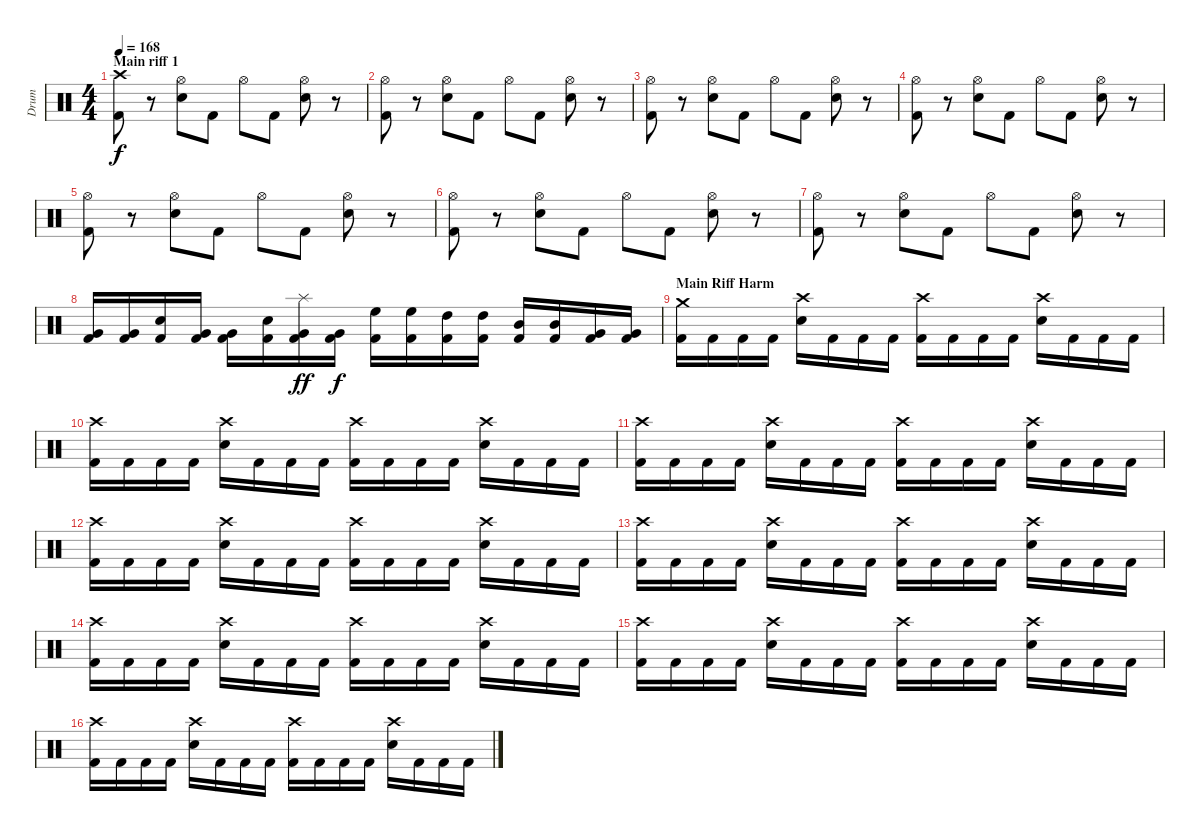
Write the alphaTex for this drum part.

\track ("Drum" "Drum") {instrument percussion}
\staff {score}
\articulation defaults
\ts (4 4)
\section ("" "Main riff 1")
\tempo 168
\clef neutral
\ks c
("Crash high (hit)" "Kick (hit) 2").8{dy f} r.8 ("Hi-Hat (open)" "Electric Snare (hit)").8 "Kick (hit) 2".8 "Hi-Hat (open)".8 "Kick (hit) 2".8 ("Hi-Hat (open)" "Electric Snare (hit)").8 r.8 |
("Hi-Hat (open)" "Kick (hit) 2").8 r.8 ("Hi-Hat (open)" "Electric Snare (hit)").8 "Kick (hit) 2".8 "Hi-Hat (open)".8 "Kick (hit) 2".8 ("Hi-Hat (open)" "Electric Snare (hit)").8 r.8 |
("Hi-Hat (open)" "Kick (hit) 2").8 r.8 ("Hi-Hat (open)" "Electric Snare (hit)").8 "Kick (hit) 2".8 "Hi-Hat (open)".8 "Kick (hit) 2".8 ("Hi-Hat (open)" "Electric Snare (hit)").8 r.8 |
("Hi-Hat (open)" "Kick (hit) 2").8 r.8 ("Hi-Hat (open)" "Electric Snare (hit)").8 "Kick (hit) 2".8 "Hi-Hat (open)".8 "Kick (hit) 2".8 ("Hi-Hat (open)" "Electric Snare (hit)").8 r.8 |
("Hi-Hat (open)" "Kick (hit) 2").8 r.8 ("Hi-Hat (open)" "Electric Snare (hit)").8 "Kick (hit) 2".8 "Hi-Hat (open)".8 "Kick (hit) 2".8 ("Hi-Hat (open)" "Electric Snare (hit)").8 r.8 |
("Hi-Hat (open)" "Kick (hit) 2").8 r.8 ("Hi-Hat (open)" "Electric Snare (hit)").8 "Kick (hit) 2".8 "Hi-Hat (open)".8 "Kick (hit) 2".8 ("Hi-Hat (open)" "Electric Snare (hit)").8 r.8 |
("Hi-Hat (open)" "Kick (hit) 2").8 r.8 ("Hi-Hat (open)" "Electric Snare (hit)").8 "Kick (hit) 2".8 "Hi-Hat (open)".8 "Kick (hit) 2".8 ("Hi-Hat (open)" "Electric Snare (hit)").8 r.8 |
("Very Low Tom (hit)" "Kick (hit) 2").16 ("Very Low Tom (hit)" "Kick (hit) 2").16 ("Electric Snare (hit)" "Kick (hit) 2").16 ("Very Low Tom (hit)" "Kick (hit) 2").16 ("Very Low Tom (hit)" "Kick (hit) 2").16 ("Electric Snare (hit)" "Kick (hit) 2").16 ("Splash (hit)" "Very Low Tom (hit)" "Kick (hit) 2").16{dy ff} ("Very Low Tom (hit)" "Kick (hit) 2").16{dy f} ("High Floor Tom (hit)" "Kick (hit) 2").16 ("High Floor Tom (hit)" "Kick (hit) 2").16 ("High Tom (hit)" "Kick (hit) 2").16 ("High Tom (hit)" "Kick (hit) 2").16 ("Mid Tom (hit)" "Kick (hit) 2").16 ("Mid Tom (hit)" "Kick (hit) 2").16 ("Very Low Tom (hit)" "Kick (hit) 2").16 ("Very Low Tom (hit)" "Kick (hit) 2").16 |
\section ("" "Main Riff Harm")
("Crash medium (hit)" "Kick (hit) 2").16 "Kick (hit) 2".16 "Kick (hit) 2".16 "Kick (hit) 2".16 ("Crash high (hit)" "Electric Snare (hit)").16 "Kick (hit) 2".16 "Kick (hit) 2".16 "Kick (hit) 2".16 ("Crash high (hit)" "Kick (hit) 2").16 "Kick (hit) 2".16 "Kick (hit) 2".16 "Kick (hit) 2".16 ("Crash high (hit)" "Electric Snare (hit)").16 "Kick (hit) 2".16 "Kick (hit) 2".16 "Kick (hit) 2".16 |
("Crash high (hit)" "Kick (hit) 2").16 "Kick (hit) 2".16 "Kick (hit) 2".16 "Kick (hit) 2".16 ("Crash high (hit)" "Electric Snare (hit)").16 "Kick (hit) 2".16 "Kick (hit) 2".16 "Kick (hit) 2".16 ("Crash high (hit)" "Kick (hit) 2").16 "Kick (hit) 2".16 "Kick (hit) 2".16 "Kick (hit) 2".16 ("Crash high (hit)" "Electric Snare (hit)").16 "Kick (hit) 2".16 "Kick (hit) 2".16 "Kick (hit) 2".16 |
("Crash high (hit)" "Kick (hit) 2").16 "Kick (hit) 2".16 "Kick (hit) 2".16 "Kick (hit) 2".16 ("Crash high (hit)" "Electric Snare (hit)").16 "Kick (hit) 2".16 "Kick (hit) 2".16 "Kick (hit) 2".16 ("Crash high (hit)" "Kick (hit) 2").16 "Kick (hit) 2".16 "Kick (hit) 2".16 "Kick (hit) 2".16 ("Crash high (hit)" "Electric Snare (hit)").16 "Kick (hit) 2".16 "Kick (hit) 2".16 "Kick (hit) 2".16 |
("Crash high (hit)" "Kick (hit) 2").16 "Kick (hit) 2".16 "Kick (hit) 2".16 "Kick (hit) 2".16 ("Crash high (hit)" "Electric Snare (hit)").16 "Kick (hit) 2".16 "Kick (hit) 2".16 "Kick (hit) 2".16 ("Crash high (hit)" "Kick (hit) 2").16 "Kick (hit) 2".16 "Kick (hit) 2".16 "Kick (hit) 2".16 ("Crash high (hit)" "Electric Snare (hit)").16 "Kick (hit) 2".16 "Kick (hit) 2".16 "Kick (hit) 2".16 |
("Crash high (hit)" "Kick (hit) 2").16 "Kick (hit) 2".16 "Kick (hit) 2".16 "Kick (hit) 2".16 ("Crash high (hit)" "Electric Snare (hit)").16 "Kick (hit) 2".16 "Kick (hit) 2".16 "Kick (hit) 2".16 ("Crash high (hit)" "Kick (hit) 2").16 "Kick (hit) 2".16 "Kick (hit) 2".16 "Kick (hit) 2".16 ("Crash high (hit)" "Electric Snare (hit)").16 "Kick (hit) 2".16 "Kick (hit) 2".16 "Kick (hit) 2".16 |
("Crash high (hit)" "Kick (hit) 2").16 "Kick (hit) 2".16 "Kick (hit) 2".16 "Kick (hit) 2".16 ("Crash high (hit)" "Electric Snare (hit)").16 "Kick (hit) 2".16 "Kick (hit) 2".16 "Kick (hit) 2".16 ("Crash high (hit)" "Kick (hit) 2").16 "Kick (hit) 2".16 "Kick (hit) 2".16 "Kick (hit) 2".16 ("Crash high (hit)" "Electric Snare (hit)").16 "Kick (hit) 2".16 "Kick (hit) 2".16 "Kick (hit) 2".16 |
("Crash high (hit)" "Kick (hit) 2").16 "Kick (hit) 2".16 "Kick (hit) 2".16 "Kick (hit) 2".16 ("Crash high (hit)" "Electric Snare (hit)").16 "Kick (hit) 2".16 "Kick (hit) 2".16 "Kick (hit) 2".16 ("Crash high (hit)" "Kick (hit) 2").16 "Kick (hit) 2".16 "Kick (hit) 2".16 "Kick (hit) 2".16 ("Crash high (hit)" "Electric Snare (hit)").16 "Kick (hit) 2".16 "Kick (hit) 2".16 "Kick (hit) 2".16 |
("Crash high (hit)" "Kick (hit) 2").16 "Kick (hit) 2".16 "Kick (hit) 2".16 "Kick (hit) 2".16 ("Crash high (hit)" "Electric Snare (hit)").16 "Kick (hit) 2".16 "Kick (hit) 2".16 "Kick (hit) 2".16 ("Crash high (hit)" "Kick (hit) 2").16 "Kick (hit) 2".16 "Kick (hit) 2".16 "Kick (hit) 2".16 ("Crash high (hit)" "Electric Snare (hit)").16 "Kick (hit) 2".16 "Kick (hit) 2".16 "Kick (hit) 2".16
